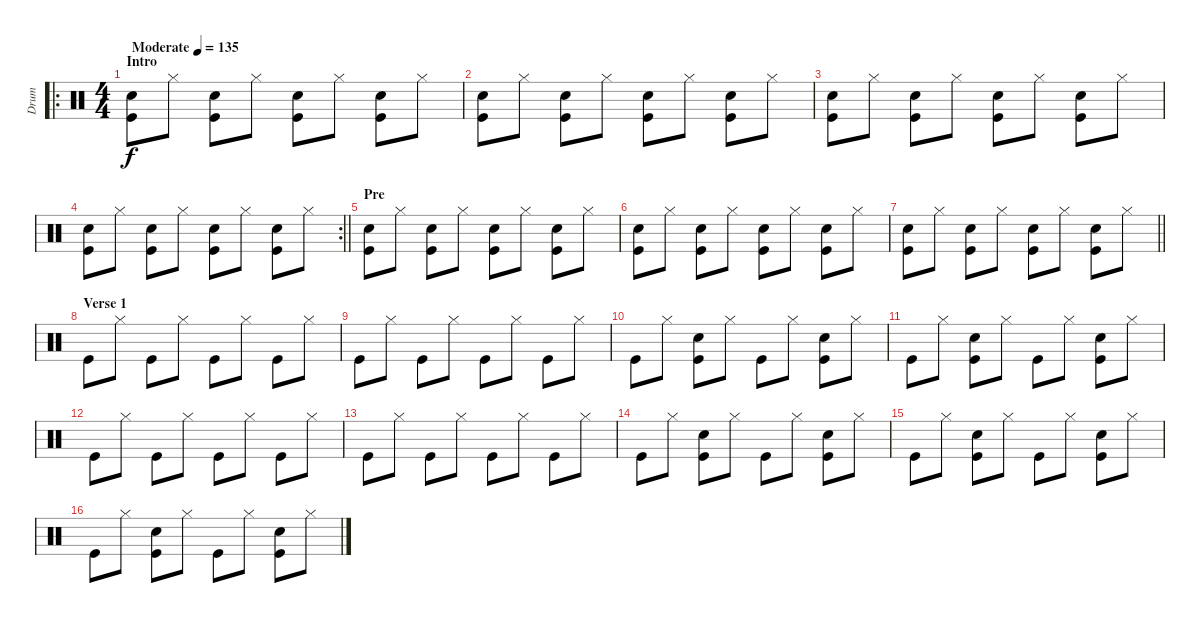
\track ("Drum" "Drum") {instrument percussion}
\staff {score}
\articulation defaults
\ro
\ts (4 4)
\section ("" "Intro")
\tempo (135 "Moderate")
\clef neutral
\ks c
("Snare (hit) 2" "Kick (hit)").8{dy f} "Hi-Hat (closed)".8 ("Snare (hit) 2" "Kick (hit)").8 "Hi-Hat (closed)".8 ("Snare (hit) 2" "Kick (hit)").8 "Hi-Hat (closed)".8 ("Snare (hit) 2" "Kick (hit)").8 "Hi-Hat (closed)".8 |
("Snare (hit) 2" "Kick (hit)").8 "Hi-Hat (closed)".8 ("Snare (hit) 2" "Kick (hit)").8 "Hi-Hat (closed)".8 ("Snare (hit) 2" "Kick (hit)").8 "Hi-Hat (closed)".8 ("Snare (hit) 2" "Kick (hit)").8 "Hi-Hat (closed)".8 |
("Snare (hit) 2" "Kick (hit)").8 "Hi-Hat (closed)".8 ("Snare (hit) 2" "Kick (hit)").8 "Hi-Hat (closed)".8 ("Snare (hit) 2" "Kick (hit)").8 "Hi-Hat (closed)".8 ("Snare (hit) 2" "Kick (hit)").8 "Hi-Hat (closed)".8 |
\rc 2
\barLineRight lightlight
("Snare (hit) 2" "Kick (hit)").8 "Hi-Hat (closed)".8 ("Snare (hit) 2" "Kick (hit)").8 "Hi-Hat (closed)".8 ("Snare (hit) 2" "Kick (hit)").8 "Hi-Hat (closed)".8 ("Snare (hit) 2" "Kick (hit)").8 "Hi-Hat (closed)".8 |
\section ("" "Pre")
("Snare (hit) 2" "Kick (hit)").8 "Hi-Hat (closed)".8 ("Snare (hit) 2" "Kick (hit)").8 "Hi-Hat (closed)".8 ("Snare (hit) 2" "Kick (hit)").8 "Hi-Hat (closed)".8 ("Snare (hit) 2" "Kick (hit)").8 "Hi-Hat (closed)".8 |
("Snare (hit) 2" "Kick (hit)").8 "Hi-Hat (closed)".8 ("Snare (hit) 2" "Kick (hit)").8 "Hi-Hat (closed)".8 ("Snare (hit) 2" "Kick (hit)").8 "Hi-Hat (closed)".8 ("Snare (hit) 2" "Kick (hit)").8 "Hi-Hat (closed)".8 |
\barLineRight lightlight
("Snare (hit) 2" "Kick (hit)").8 "Hi-Hat (closed)".8 ("Snare (hit) 2" "Kick (hit)").8 "Hi-Hat (closed)".8 ("Snare (hit) 2" "Kick (hit)").8 "Hi-Hat (closed)".8 ("Snare (hit) 2" "Kick (hit)").8 "Hi-Hat (closed)".8 |
\section ("" "Verse 1")
"Kick (hit)".8 "Hi-Hat (closed)".8 "Kick (hit)".8 "Hi-Hat (closed)".8 "Kick (hit)".8 "Hi-Hat (closed)".8 "Kick (hit)".8 "Hi-Hat (closed)".8 |
"Kick (hit)".8 "Hi-Hat (closed)".8 "Kick (hit)".8 "Hi-Hat (closed)".8 "Kick (hit)".8 "Hi-Hat (closed)".8 "Kick (hit)".8 "Hi-Hat (closed)".8 |
"Kick (hit)".8 "Hi-Hat (closed)".8 ("Snare (hit) 2" "Kick (hit)").8 "Hi-Hat (closed)".8 "Kick (hit)".8 "Hi-Hat (closed)".8 ("Snare (hit) 2" "Kick (hit)").8 "Hi-Hat (closed)".8 |
"Kick (hit)".8 "Hi-Hat (closed)".8 ("Snare (hit) 2" "Kick (hit)").8 "Hi-Hat (closed)".8 "Kick (hit)".8 "Hi-Hat (closed)".8 ("Snare (hit) 2" "Kick (hit)").8 "Hi-Hat (closed)".8 |
"Kick (hit)".8 "Hi-Hat (closed)".8 "Kick (hit)".8 "Hi-Hat (closed)".8 "Kick (hit)".8 "Hi-Hat (closed)".8 "Kick (hit)".8 "Hi-Hat (closed)".8 |
"Kick (hit)".8 "Hi-Hat (closed)".8 "Kick (hit)".8 "Hi-Hat (closed)".8 "Kick (hit)".8 "Hi-Hat (closed)".8 "Kick (hit)".8 "Hi-Hat (closed)".8 |
"Kick (hit)".8 "Hi-Hat (closed)".8 ("Snare (hit) 2" "Kick (hit)").8 "Hi-Hat (closed)".8 "Kick (hit)".8 "Hi-Hat (closed)".8 ("Snare (hit) 2" "Kick (hit)").8 "Hi-Hat (closed)".8 |
"Kick (hit)".8 "Hi-Hat (closed)".8 ("Snare (hit) 2" "Kick (hit)").8 "Hi-Hat (closed)".8 "Kick (hit)".8 "Hi-Hat (closed)".8 ("Snare (hit) 2" "Kick (hit)").8 "Hi-Hat (closed)".8 |
"Kick (hit)".8 "Hi-Hat (closed)".8 ("Snare (hit) 2" "Kick (hit)").8 "Hi-Hat (closed)".8 "Kick (hit)".8 "Hi-Hat (closed)".8 ("Snare (hit) 2" "Kick (hit)").8 "Hi-Hat (closed)".8
